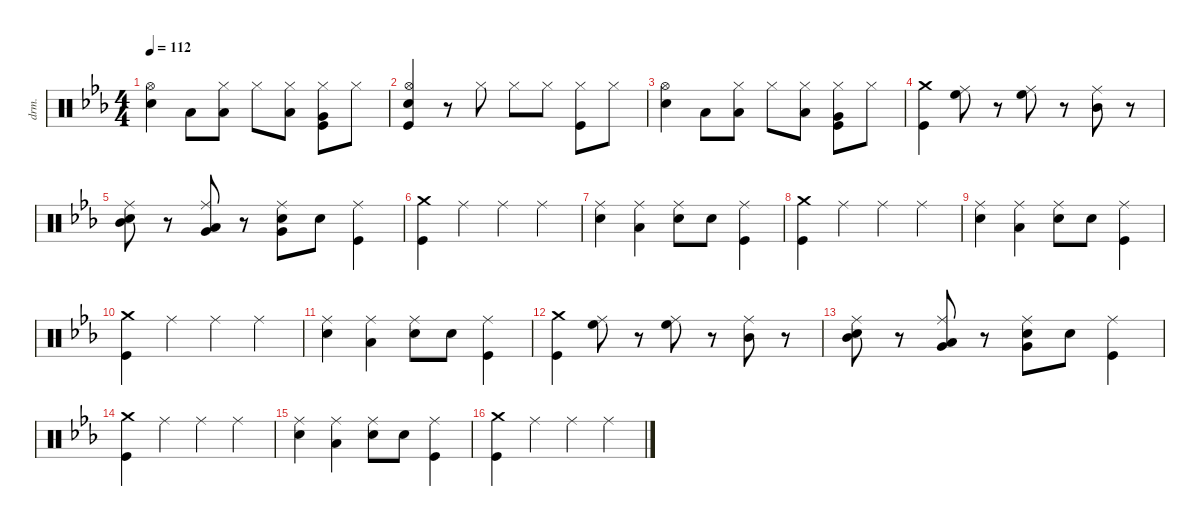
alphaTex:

\defaultSystemsLayout 4
\hideDynamics
\bracketExtendMode nobrackets
\otherSystemsTrackNameOrientation horizontal
\track ("Percussion" "drm.") {instrument percussion}
\staff {score}
\articulation defaults
\ts (4 4)
\tempo 112
\clef neutral
\ks cminor
("Snare (hit) 2"{acc forcenatural} "Hi-Hat (open)"{acc forcenatural}).4{dy f} "Low Tom (hit)"{acc forcenatural}.8 ("Low Tom (hit)"{acc forcenatural} "Hi-Hat (closed)"{acc forcenatural}).8 "Hi-Hat (closed)"{acc forcenatural}.8 ("Low Tom (hit)"{acc forcenatural} "Hi-Hat (closed)"{acc forcenatural}).8 ("Very Low Tom (hit)"{acc forcenatural} "Kick (hit)"{acc forcenatural} "Hi-Hat (closed)"{acc forcenatural}).8 "Hi-Hat (closed)"{acc forcenatural}.8 |
("Hi-Hat (open)"{acc forcenatural} "Kick (hit)"{acc forcenatural} "Snare (hit) 2"{acc forcenatural}).4 r.8 "Hi-Hat (closed)"{acc forcenatural}.8 "Hi-Hat (closed)"{acc forcenatural}.8 "Hi-Hat (closed)"{acc forcenatural}.8 ("Kick (hit)"{acc forcenatural} "Hi-Hat (closed)"{acc forcenatural}).8 "Hi-Hat (closed)"{acc forcenatural}.8 |
("Snare (hit) 2"{acc forcenatural} "Hi-Hat (open)"{acc forcenatural}).4 "Low Tom (hit)"{acc forcenatural}.8 ("Low Tom (hit)"{acc forcenatural} "Hi-Hat (closed)"{acc forcenatural}).8 "Hi-Hat (closed)"{acc forcenatural}.8 ("Low Tom (hit)"{acc forcenatural} "Hi-Hat (closed)"{acc forcenatural}).8 ("Very Low Tom (hit)"{acc forcenatural} "Kick (hit)"{acc forcenatural} "Hi-Hat (closed)"{acc forcenatural}).8 "Hi-Hat (closed)"{acc forcenatural}.8 |
("Crash medium (hit)"{acc forcenatural} "Kick (hit)"{acc forcenatural}).4 ("High Floor Tom (hit)"{acc forcenatural} "Ride (middle)"{acc forcenatural}).8 r.8 ("High Floor Tom (hit)"{acc forcenatural} "Ride (middle)"{acc forcenatural}).8 r.8 ("Mid Tom (hit)"{acc forcenatural} "Ride (middle)"{acc forcenatural}).8 r.8 |
("Mid Tom (hit)"{acc forcenatural} "Snare (hit) 2"{acc forcenatural} "Ride (middle)"{acc forcenatural}).8 r.8 ("Very Low Tom (hit)"{acc forcenatural} "Low Floor Tom (hit)"{acc forcenatural} "Ride (middle)"{acc forcenatural}).8 r.8 ("Very Low Tom (hit)"{acc forcenatural} "Snare (hit) 2"{acc forcenatural} "Ride (middle)"{acc forcenatural}).8 "Snare (hit) 2"{acc forcenatural}.8 ("Kick (hit)"{acc forcenatural} "Ride (middle)"{acc forcenatural}).4 |
("Crash medium (hit)"{acc forcenatural} "Kick (hit)"{acc forcenatural}).4 "Ride (middle)"{acc forcenatural}.4 "Ride (middle)"{acc forcenatural}.4 "Ride (middle)"{acc forcenatural}.4 |
("Snare (hit) 2"{acc forcenatural} "Ride (middle)"{acc forcenatural}).4 ("Low Floor Tom (hit)"{acc forcenatural} "Ride (middle)"{acc forcenatural}).4 ("Snare (hit) 2"{acc forcenatural} "Ride (middle)"{acc forcenatural}).8 "Snare (hit) 2"{acc forcenatural}.8 ("Kick (hit)"{acc forcenatural} "Ride (middle)"{acc forcenatural}).4 |
("Crash medium (hit)"{acc forcenatural} "Kick (hit)"{acc forcenatural}).4 "Ride (middle)"{acc forcenatural}.4 "Ride (middle)"{acc forcenatural}.4 "Ride (middle)"{acc forcenatural}.4 |
("Snare (hit) 2"{acc forcenatural} "Ride (middle)"{acc forcenatural}).4 ("Low Floor Tom (hit)"{acc forcenatural} "Ride (middle)"{acc forcenatural}).4 ("Snare (hit) 2"{acc forcenatural} "Ride (middle)"{acc forcenatural}).8 "Snare (hit) 2"{acc forcenatural}.8 ("Kick (hit)"{acc forcenatural} "Ride (middle)"{acc forcenatural}).4 |
("Crash medium (hit)"{acc forcenatural} "Kick (hit)"{acc forcenatural}).4 "Ride (middle)"{acc forcenatural}.4 "Ride (middle)"{acc forcenatural}.4 "Ride (middle)"{acc forcenatural}.4 |
("Snare (hit) 2"{acc forcenatural} "Ride (middle)"{acc forcenatural}).4 ("Low Floor Tom (hit)"{acc forcenatural} "Ride (middle)"{acc forcenatural}).4 ("Snare (hit) 2"{acc forcenatural} "Ride (middle)"{acc forcenatural}).8 "Snare (hit) 2"{acc forcenatural}.8 ("Kick (hit)"{acc forcenatural} "Ride (middle)"{acc forcenatural}).4 |
("Crash medium (hit)"{acc forcenatural} "Kick (hit)"{acc forcenatural}).4 ("High Floor Tom (hit)"{acc forcenatural} "Ride (middle)"{acc forcenatural}).8 r.8 ("High Floor Tom (hit)"{acc forcenatural} "Ride (middle)"{acc forcenatural}).8 r.8 ("Mid Tom (hit)"{acc forcenatural} "Ride (middle)"{acc forcenatural}).8 r.8 |
("Mid Tom (hit)"{acc forcenatural} "Snare (hit) 2"{acc forcenatural} "Ride (middle)"{acc forcenatural}).8 r.8 ("Very Low Tom (hit)"{acc forcenatural} "Low Floor Tom (hit)"{acc forcenatural} "Ride (middle)"{acc forcenatural}).8 r.8 ("Very Low Tom (hit)"{acc forcenatural} "Snare (hit) 2"{acc forcenatural} "Ride (middle)"{acc forcenatural}).8 "Snare (hit) 2"{acc forcenatural}.8 ("Kick (hit)"{acc forcenatural} "Ride (middle)"{acc forcenatural}).4 |
("Crash medium (hit)"{acc forcenatural} "Kick (hit)"{acc forcenatural}).4 "Ride (middle)"{acc forcenatural}.4 "Ride (middle)"{acc forcenatural}.4 "Ride (middle)"{acc forcenatural}.4 |
("Snare (hit) 2"{acc forcenatural} "Ride (middle)"{acc forcenatural}).4 ("Low Floor Tom (hit)"{acc forcenatural} "Ride (middle)"{acc forcenatural}).4 ("Snare (hit) 2"{acc forcenatural} "Ride (middle)"{acc forcenatural}).8 "Snare (hit) 2"{acc forcenatural}.8 ("Kick (hit)"{acc forcenatural} "Ride (middle)"{acc forcenatural}).4 |
("Crash medium (hit)"{acc forcenatural} "Kick (hit)"{acc forcenatural}).4 "Ride (middle)"{acc forcenatural}.4 "Ride (middle)"{acc forcenatural}.4 "Ride (middle)"{acc forcenatural}.4
